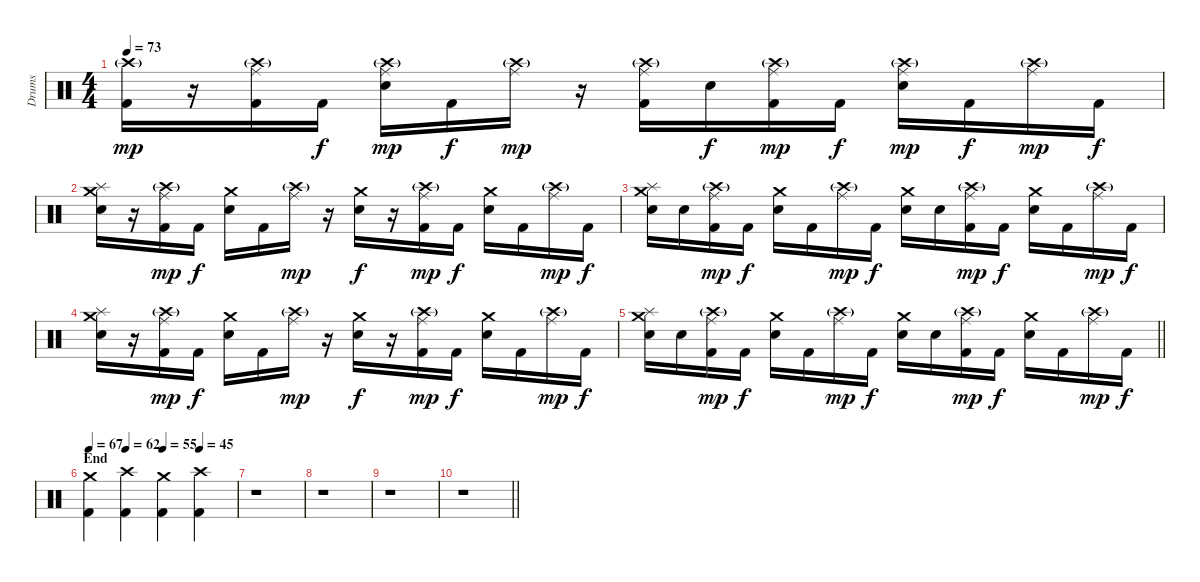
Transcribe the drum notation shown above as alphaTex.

\track ("Drums" "Drums") {instrument percussion}
\staff {score}
\articulation defaults
\ts (4 4)
\tempo 73
\clef neutral
\ks c
("Crash high (hit)"{g} "Kick (hit) 2").16{dy mp} r.16 ("Crash high (hit)"{g} "Ride (middle)" "Kick (hit) 2").16 "Kick (hit) 2".16{dy f} ("Crash high (hit)"{g} "Ride (middle)" "Electric Snare (hit)").16{dy mp} "Kick (hit) 2".16{dy f} ("Crash high (hit)"{g} "Ride (middle)").16{dy mp} r.16 ("Crash high (hit)"{g} "Ride (middle)" "Kick (hit) 2").16 "Electric Snare (hit)".16{dy f} ("Crash high (hit)"{g} "Ride (middle)" "Kick (hit) 2").16{dy mp} "Kick (hit) 2".16{dy f} ("Crash high (hit)"{g} "Ride (middle)" "Electric Snare (hit)").16{dy mp} "Kick (hit) 2".16{dy f} ("Crash high (hit)"{g} "Ride (middle)").16{dy mp} "Kick (hit) 2".16{dy f} |
("Crash medium (hit)" "Splash (hit)" "Electric Snare (hit)").16 r.16 ("Crash high (hit)"{g} "Ride (middle)" "Kick (hit) 2").16{dy mp} "Kick (hit) 2".16{dy f} ("Crash medium (hit)" "Electric Snare (hit)").16 "Kick (hit) 2".16 ("Crash high (hit)"{g} "Ride (middle)").16{dy mp} r.16 ("Crash medium (hit)" "Electric Snare (hit)").16{dy f} r.16 ("Crash high (hit)"{g} "Ride (middle)" "Kick (hit) 2").16{dy mp} "Kick (hit) 2".16{dy f} ("Crash medium (hit)" "Electric Snare (hit)").16 "Kick (hit) 2".16 ("Crash high (hit)"{g} "Ride (middle)").16{dy mp} "Kick (hit) 2".16{dy f} |
("Crash medium (hit)" "Splash (hit)" "Electric Snare (hit)").16 "Electric Snare (hit)".16 ("Crash high (hit)"{g} "Ride (middle)" "Kick (hit) 2").16{dy mp} "Kick (hit) 2".16{dy f} ("Crash medium (hit)" "Electric Snare (hit)").16 "Kick (hit) 2".16 ("Crash high (hit)"{g} "Ride (middle)").16{dy mp} "Kick (hit) 2".16{dy f} ("Crash medium (hit)" "Electric Snare (hit)").16 "Electric Snare (hit)".16 ("Crash high (hit)"{g} "Ride (middle)" "Kick (hit) 2").16{dy mp} "Kick (hit) 2".16{dy f} ("Crash medium (hit)" "Electric Snare (hit)").16 "Kick (hit) 2".16 ("Crash high (hit)"{g} "Ride (middle)").16{dy mp} "Kick (hit) 2".16{dy f} |
("Crash medium (hit)" "Splash (hit)" "Electric Snare (hit)").16 r.16 ("Crash high (hit)"{g} "Ride (middle)" "Kick (hit) 2").16{dy mp} "Kick (hit) 2".16{dy f} ("Crash medium (hit)" "Electric Snare (hit)").16 "Kick (hit) 2".16 ("Crash high (hit)"{g} "Ride (middle)").16{dy mp} r.16 ("Crash medium (hit)" "Electric Snare (hit)").16{dy f} r.16 ("Crash high (hit)"{g} "Ride (middle)" "Kick (hit) 2").16{dy mp} "Kick (hit) 2".16{dy f} ("Crash medium (hit)" "Electric Snare (hit)").16 "Kick (hit) 2".16 ("Crash high (hit)"{g} "Ride (middle)").16{dy mp} "Kick (hit) 2".16{dy f} |
\barLineRight lightlight
("Crash medium (hit)" "Splash (hit)" "Electric Snare (hit)").16 "Electric Snare (hit)".16 ("Crash high (hit)"{g} "Ride (middle)" "Kick (hit) 2").16{dy mp} "Kick (hit) 2".16{dy f} ("Crash medium (hit)" "Electric Snare (hit)").16 "Kick (hit) 2".16 ("Crash high (hit)"{g} "Ride (middle)").16{dy mp} "Kick (hit) 2".16{dy f} ("Crash medium (hit)" "Electric Snare (hit)").16 "Electric Snare (hit)".16 ("Crash high (hit)"{g} "Ride (middle)" "Kick (hit) 2").16{dy mp} "Kick (hit) 2".16{dy f} ("Crash medium (hit)" "Electric Snare (hit)").16 "Kick (hit) 2".16 ("Crash high (hit)"{g} "Ride (middle)").16{dy mp} "Kick (hit) 2".16{dy f} |
\section ("" "End")
\tempo 67
\tempo (62 0.25)
\tempo (55 0.5)
\tempo (45 0.75)
("Crash medium (hit)" "Kick (hit) 2").4 ("Crash high (hit)" "Kick (hit) 2").4 ("Crash medium (hit)" "Kick (hit) 2").4 ("Crash high (hit)" "Kick (hit) 2").4 |
r.1 |
r.1 |
r.1 |
\barLineRight lightlight
r.1
